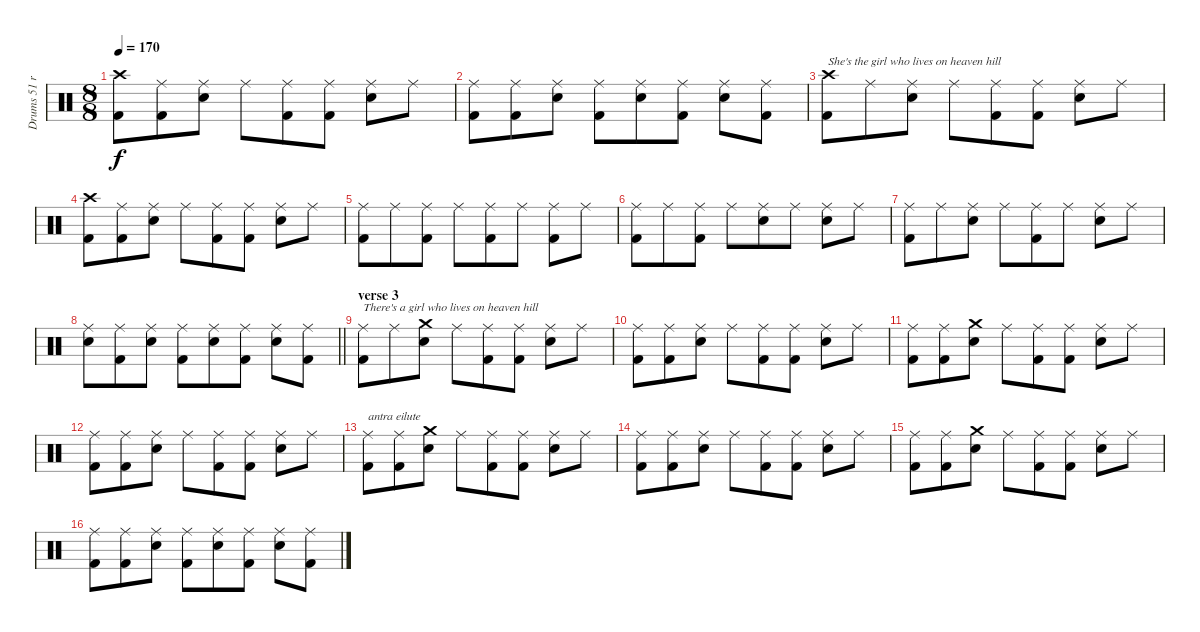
\track ("Drums 51 ride ALBUM" "Drums 51 r") {mute instrument percussion}
\staff {score}
\articulation defaults
\ts (8 8)
\tempo 170
\clef neutral
\ks c
("Crash high (hit)" "Kick (hit) 2").8{dy f} ("Ride (middle)" "Kick (hit) 2").8 ("Ride (middle)" "Snare (hit) 2").8 "Ride (middle)".8 ("Ride (middle)" "Kick (hit) 2").8 ("Ride (middle)" "Kick (hit) 2").8 ("Ride (middle)" "Snare (hit) 2").8 "Ride (middle)".8 |
("Ride (middle)" "Kick (hit) 2").8 ("Ride (middle)" "Kick (hit) 2").8 ("Ride (middle)" "Snare (hit) 2").8 ("Ride (middle)" "Kick (hit) 2").8 ("Ride (middle)" "Snare (hit) 2").8 ("Ride (middle)" "Kick (hit) 2").8 ("Ride (middle)" "Snare (hit) 2").8 ("Ride (middle)" "Kick (hit) 2").8 |
("Crash high (hit)" "Kick (hit) 2").8{txt "She's the girl who lives on heaven hill"} "Ride (middle)".8 ("Ride (middle)" "Snare (hit) 2").8 "Ride (middle)".8 ("Ride (middle)" "Kick (hit) 2").8 ("Ride (middle)" "Kick (hit) 2").8 ("Ride (middle)" "Snare (hit) 2").8 "Ride (middle)".8 |
("Crash high (hit)" "Kick (hit) 2").8 ("Ride (middle)" "Kick (hit) 2").8 ("Ride (middle)" "Snare (hit) 2").8 "Ride (middle)".8 ("Ride (middle)" "Kick (hit) 2").8 ("Ride (middle)" "Kick (hit) 2").8 ("Ride (middle)" "Snare (hit) 2").8 "Ride (middle)".8 |
("Ride (middle)" "Kick (hit) 2").8 "Ride (middle)".8 ("Ride (middle)" "Kick (hit) 2").8 "Ride (middle)".8 ("Ride (middle)" "Kick (hit) 2").8 "Ride (middle)".8 ("Ride (middle)" "Kick (hit) 2").8 "Ride (middle)".8 |
("Ride (middle)" "Kick (hit) 2").8 "Ride (middle)".8 ("Ride (middle)" "Kick (hit) 2").8 "Ride (middle)".8 ("Ride (middle)" "Snare (hit) 2").8 "Ride (middle)".8 ("Ride (middle)" "Snare (hit) 2").8 "Ride (middle)".8 |
("Ride (middle)" "Kick (hit) 2").8 "Ride (middle)".8 ("Ride (middle)" "Snare (hit) 2").8 "Ride (middle)".8 ("Ride (middle)" "Kick (hit) 2").8 "Ride (middle)".8 ("Ride (middle)" "Snare (hit) 2").8 "Ride (middle)".8 |
\barLineRight lightlight
("Ride (middle)" "Snare (hit) 2").8 ("Ride (middle)" "Kick (hit) 2").8 ("Ride (middle)" "Snare (hit) 2").8 ("Ride (middle)" "Kick (hit) 2").8 ("Ride (middle)" "Snare (hit) 2").8 ("Ride (middle)" "Kick (hit) 2").8 ("Ride (middle)" "Snare (hit) 2").8 ("Ride (middle)" "Kick (hit) 2").8 |
\section ("" "verse 3")
("Ride (middle)" "Kick (hit) 2").8{txt "There's a girl who lives on heaven hill"} "Ride (middle)".8 ("Crash medium (hit)" "Snare (hit) 2").8 "Ride (middle)".8 ("Ride (middle)" "Kick (hit) 2").8 ("Ride (middle)" "Kick (hit) 2").8 ("Ride (middle)" "Snare (hit) 2").8 "Ride (middle)".8 |
("Ride (middle)" "Kick (hit) 2").8 ("Ride (middle)" "Kick (hit) 2").8 ("Ride (middle)" "Snare (hit) 2").8 "Ride (middle)".8 ("Ride (middle)" "Kick (hit) 2").8 ("Ride (middle)" "Kick (hit) 2").8 ("Ride (middle)" "Snare (hit) 2").8 "Ride (middle)".8 |
("Ride (middle)" "Kick (hit) 2").8 ("Ride (middle)" "Kick (hit) 2").8 ("Crash medium (hit)" "Snare (hit) 2").8 "Ride (middle)".8 ("Ride (middle)" "Kick (hit) 2").8 ("Ride (middle)" "Kick (hit) 2").8 ("Ride (middle)" "Snare (hit) 2").8 "Ride (middle)".8 |
("Ride (middle)" "Kick (hit) 2").8 ("Ride (middle)" "Kick (hit) 2").8 ("Ride (middle)" "Snare (hit) 2").8 "Ride (middle)".8 ("Ride (middle)" "Kick (hit) 2").8 ("Ride (middle)" "Kick (hit) 2").8 ("Ride (middle)" "Snare (hit) 2").8 "Ride (middle)".8 |
("Ride (middle)" "Kick (hit) 2").8{txt "antra eilute"} ("Ride (middle)" "Kick (hit) 2").8 ("Crash medium (hit)" "Snare (hit) 2").8 "Ride (middle)".8 ("Ride (middle)" "Kick (hit) 2").8 ("Ride (middle)" "Kick (hit) 2").8 ("Ride (middle)" "Snare (hit) 2").8 "Ride (middle)".8 |
("Ride (middle)" "Kick (hit) 2").8 ("Ride (middle)" "Kick (hit) 2").8 ("Ride (middle)" "Snare (hit) 2").8 "Ride (middle)".8 ("Ride (middle)" "Kick (hit) 2").8 ("Ride (middle)" "Kick (hit) 2").8 ("Ride (middle)" "Snare (hit) 2").8 "Ride (middle)".8 |
("Ride (middle)" "Kick (hit) 2").8 ("Ride (middle)" "Kick (hit) 2").8 ("Crash medium (hit)" "Snare (hit) 2").8 "Ride (middle)".8 ("Ride (middle)" "Kick (hit) 2").8 ("Ride (middle)" "Kick (hit) 2").8 ("Ride (middle)" "Snare (hit) 2").8 "Ride (middle)".8 |
("Ride (middle)" "Kick (hit) 2").8 ("Ride (middle)" "Kick (hit) 2").8 ("Ride (middle)" "Snare (hit) 2").8 ("Ride (middle)" "Kick (hit) 2").8 ("Ride (middle)" "Snare (hit) 2").8 ("Ride (middle)" "Kick (hit) 2").8 ("Ride (middle)" "Snare (hit) 2").8 ("Ride (middle)" "Kick (hit) 2").8
